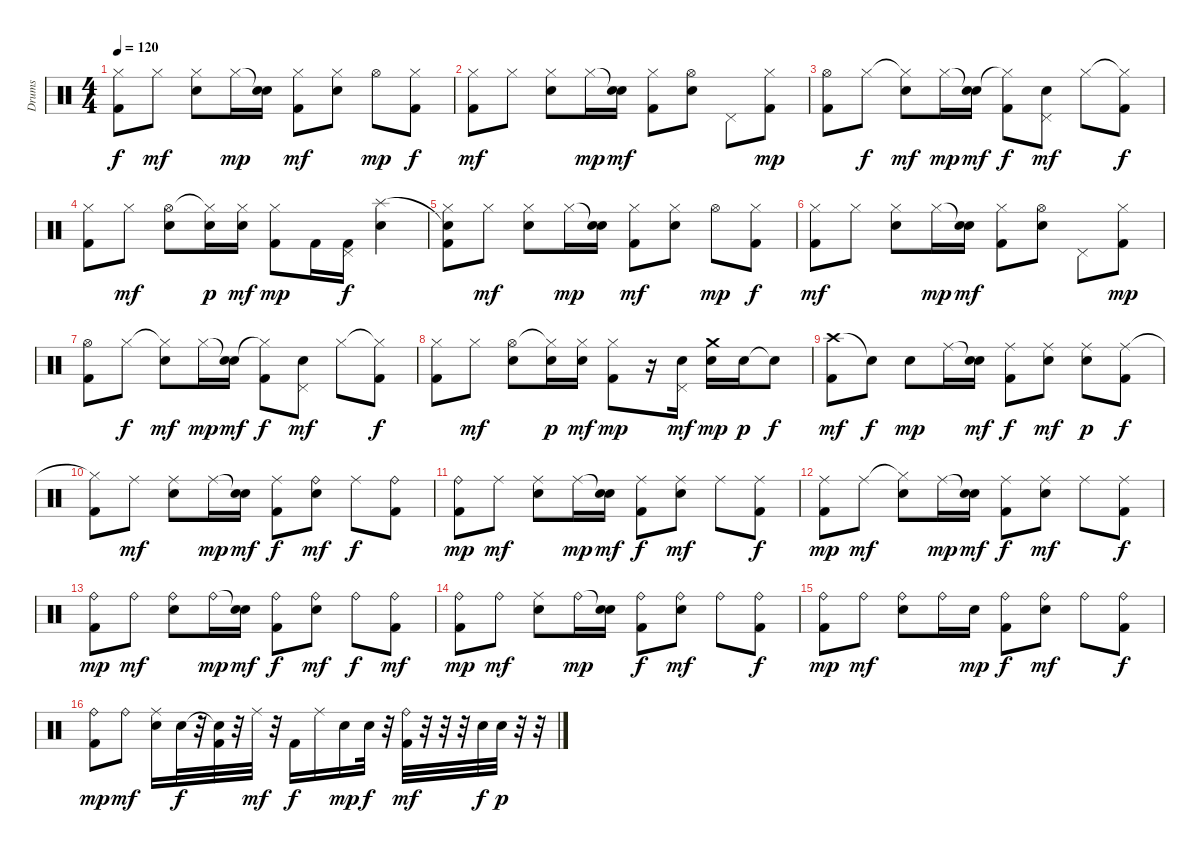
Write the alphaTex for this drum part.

\track ("Drums" "Drums") {instrument percussion}
\staff {score}
\articulation defaults
\ts (4 4)
\tempo 120
\clef neutral
\ks c
("Hi-Hat (closed)" "Kick (hit) 2").8{dy f} "Hi-Hat (closed)".8{dy mf} ("Hi-Hat (closed)" "Snare (hit) 2").8 "Hi-Hat (closed)".16{dy mp} ("Snare (hit)"{t} "Snare (hit) 2").16 ("Hi-Hat (closed)" "Kick (hit) 2").8{dy mf} ("Hi-Hat (closed)" "Snare (hit) 2").8 "Hi-Hat (open)".8{dy mp} ("Hi-Hat (closed)" "Kick (hit) 2").8{dy f} |
("Hi-Hat (closed)" "Kick (hit) 2").8{dy mf} "Hi-Hat (closed)".8 ("Hi-Hat (closed)" "Snare (hit) 2").8 "Hi-Hat (closed)".16{dy mp} ("Snare (hit)"{t} "Snare (hit) 2").16{dy mf} ("Hi-Hat (closed)" "Kick (hit) 2").8 ("Hi-Hat (open)" "Snare (hit) 2").8 "Pedal Hi-Hat (hit)".8 ("Hi-Hat (closed)" "Kick (hit) 2").8{dy mp} |
("Hi-Hat (open)" "Kick (hit) 2").8 "Hi-Hat (closed)".8{dy f} ("Hi-Hat (closed)"{t} "Snare (hit) 2").8{dy mf} "Hi-Hat (closed)".16{dy mp} ("Snare (hit)"{t} "Snare (hit) 2").16{dy mf} ("Hi-Hat (closed)"{t} "Kick (hit) 2").8{dy f} ("Pedal Hi-Hat (hit)" "Snare (hit) 2").8{dy mf} "Hi-Hat (closed)".8 ("Hi-Hat (closed)"{t} "Kick (hit) 2").8{dy f} |
("Hi-Hat (closed)" "Kick (hit) 2").8 "Hi-Hat (closed)".8{dy mf} ("Hi-Hat (open)" "Snare (hit) 2").8 ("Hi-Hat (closed)"{t} "Snare (hit) 2").16{dy p} ("Hi-Hat (closed)" "Snare (hit) 2").16{dy mf} ("Hi-Hat (closed)" "Kick (hit) 2").8{dy mp} "Kick (hit) 2".16 ("Pedal Hi-Hat (hit)" "Kick (hit) 2").16{dy f} ("Splash (hit)" "Snare (hit) 2").4 |
("Snare (hit)"{t} "Hi-Hat (closed)" "Kick (hit) 2").8 "Hi-Hat (closed)".8{dy mf} ("Hi-Hat (closed)" "Snare (hit) 2").8 "Hi-Hat (closed)".16{dy mp} ("Snare (hit)"{t} "Snare (hit) 2").16 ("Hi-Hat (closed)" "Kick (hit) 2").8{dy mf} ("Hi-Hat (closed)" "Snare (hit) 2").8 "Hi-Hat (open)".8{dy mp} ("Hi-Hat (closed)" "Kick (hit) 2").8{dy f} |
("Hi-Hat (closed)" "Kick (hit) 2").8{dy mf} "Hi-Hat (closed)".8 ("Hi-Hat (closed)" "Snare (hit) 2").8 "Hi-Hat (closed)".16{dy mp} ("Snare (hit)"{t} "Snare (hit) 2").16{dy mf} ("Hi-Hat (closed)" "Kick (hit) 2").8 ("Hi-Hat (open)" "Snare (hit) 2").8 "Pedal Hi-Hat (hit)".8 ("Hi-Hat (closed)" "Kick (hit) 2").8{dy mp} |
("Hi-Hat (open)" "Kick (hit) 2").8 "Hi-Hat (closed)".8{dy f} ("Hi-Hat (closed)"{t} "Snare (hit) 2").8{dy mf} "Hi-Hat (closed)".16{dy mp} ("Snare (hit)"{t} "Snare (hit) 2").16{dy mf} ("Hi-Hat (closed)"{t} "Kick (hit) 2").8{dy f} ("Pedal Hi-Hat (hit)" "Snare (hit) 2").8{dy mf} "Hi-Hat (closed)".8 ("Hi-Hat (closed)"{t} "Kick (hit) 2").8{dy f} |
("Hi-Hat (closed)" "Kick (hit) 2").8 "Hi-Hat (closed)".8{dy mf} ("Hi-Hat (open)" "Snare (hit) 2").8 ("Hi-Hat (closed)"{t} "Snare (hit) 2").16{dy p} ("Hi-Hat (closed)" "Snare (hit) 2").16{dy mf} ("Hi-Hat (closed)" "Kick (hit) 2").8{dy mp} r.16 ("Pedal Hi-Hat (hit)" "Snare (hit) 2").16{dy mf} ("Crash medium (hit)" "Snare (hit) 2").16{dy mp} "Snare (hit) 2".16{dy p} "Snare (hit)"{t}.8{dy f} |
("Crash high (hit)" "Kick (hit) 2").8{dy mf} "Snare (hit)"{t}.8{dy f} "Snare (hit) 2".8{dy mp} "Ride (middle)".16 ("Snare (hit)"{t} "Snare (hit) 2").16{dy mf} ("Ride (middle)" "Kick (hit) 2").8{dy f} ("Ride (middle)" "Snare (hit) 2").8{dy mf} ("Ride (middle)" "Snare (hit) 2").8{dy p} ("Ride (middle)" "Kick (hit) 2").8{dy f} |
("Hi-Hat (closed)"{t} "Kick (hit) 2").8 "Ride (middle)".8{dy mf} ("Ride (middle)" "Snare (hit) 2").8 "Ride (middle)".16{dy mp} ("Snare (hit)"{t} "Snare (hit) 2").16{dy mf} ("Ride (middle)" "Kick (hit) 2").8{dy f} ("Ride (bell)" "Snare (hit) 2").8{dy mf} "Ride (middle)".8{dy f} ("Ride (bell)" "Kick (hit) 2").8 |
("Ride (bell)" "Kick (hit) 2").8{dy mp} "Ride (middle)".8{dy mf} ("Ride (middle)" "Snare (hit) 2").8 "Ride (middle)".16{dy mp} ("Snare (hit)"{t} "Snare (hit) 2").16{dy mf} ("Ride (middle)" "Kick (hit) 2").8{dy f} ("Ride (middle)" "Snare (hit) 2").8{dy mf} "Ride (middle)".8 ("Ride (middle)" "Kick (hit) 2").8{dy f} |
("Ride (middle)" "Kick (hit) 2").8{dy mp} "Ride (middle)".8{dy mf} ("Hi-Hat (closed)"{t} "Snare (hit) 2").8 "Ride (middle)".16{dy mp} ("Snare (hit)"{t} "Snare (hit) 2").16{dy mf} ("Ride (middle)" "Kick (hit) 2").8{dy f} ("Ride (middle)" "Snare (hit) 2").8{dy mf} "Ride (middle)".8 ("Ride (middle)" "Kick (hit) 2").8{dy f} |
("Ride (bell)" "Kick (hit) 2").8{dy mp} "Ride (bell)".8{dy mf} ("Ride (bell)" "Snare (hit) 2").8 "Ride (bell)".16{dy mp} ("Snare (hit)"{t} "Snare (hit) 2").16{dy mf} ("Ride (bell)" "Kick (hit) 2").8{dy f} ("Ride (bell)" "Snare (hit) 2").8{dy mf} "Ride (bell)".8{dy f} ("Ride (bell)" "Kick (hit) 2").8{dy mf} |
("Ride (bell)" "Kick (hit) 2").8{dy mp} "Ride (bell)".8{dy mf} ("Ride (middle)" "Snare (hit) 2").8 "Ride (bell)".16{dy mp} ("Snare (hit)"{t} "Snare (hit) 2").16 ("Ride (bell)" "Kick (hit) 2").8{dy f} ("Ride (bell)" "Snare (hit) 2").8{dy mf} "Ride (bell)".8 ("Ride (bell)" "Kick (hit) 2").8{dy f} |
("Ride (bell)" "Kick (hit) 2").8{dy mp} "Ride (bell)".8{dy mf} ("Ride (bell)" "Snare (hit) 2").8 "Ride (bell)".16 "Snare (hit) 2".16{dy mp} ("Ride (bell)" "Kick (hit) 2").8{dy f} ("Ride (bell)" "Snare (hit) 2").8{dy mf} "Ride (bell)".8 ("Ride (bell)" "Kick (hit) 2").8{dy f} |
("Ride (bell)" "Kick (hit) 2").8{dy mp} "Ride (bell)".8{dy mf} ("Ride (middle)" "Snare (hit) 2").16 "Snare (hit) 2".32{dy f} r.32 ("Snare (hit)"{t} "Kick (hit) 2").32 r.32 "Ride (middle)".32{dy mf} r.32 "Kick (hit) 2".16{dy f} "Ride (middle)".16 "Snare (hit) 2".16{dy mp} "Snare (hit) 2".32{dy f} r.32 ("Ride (bell)" "Kick (hit) 2").32{dy mf} r.32 r.32 r.32 "Snare (hit) 2".32{dy f} "Snare (hit) 2".32{dy p} r.32 r.32
